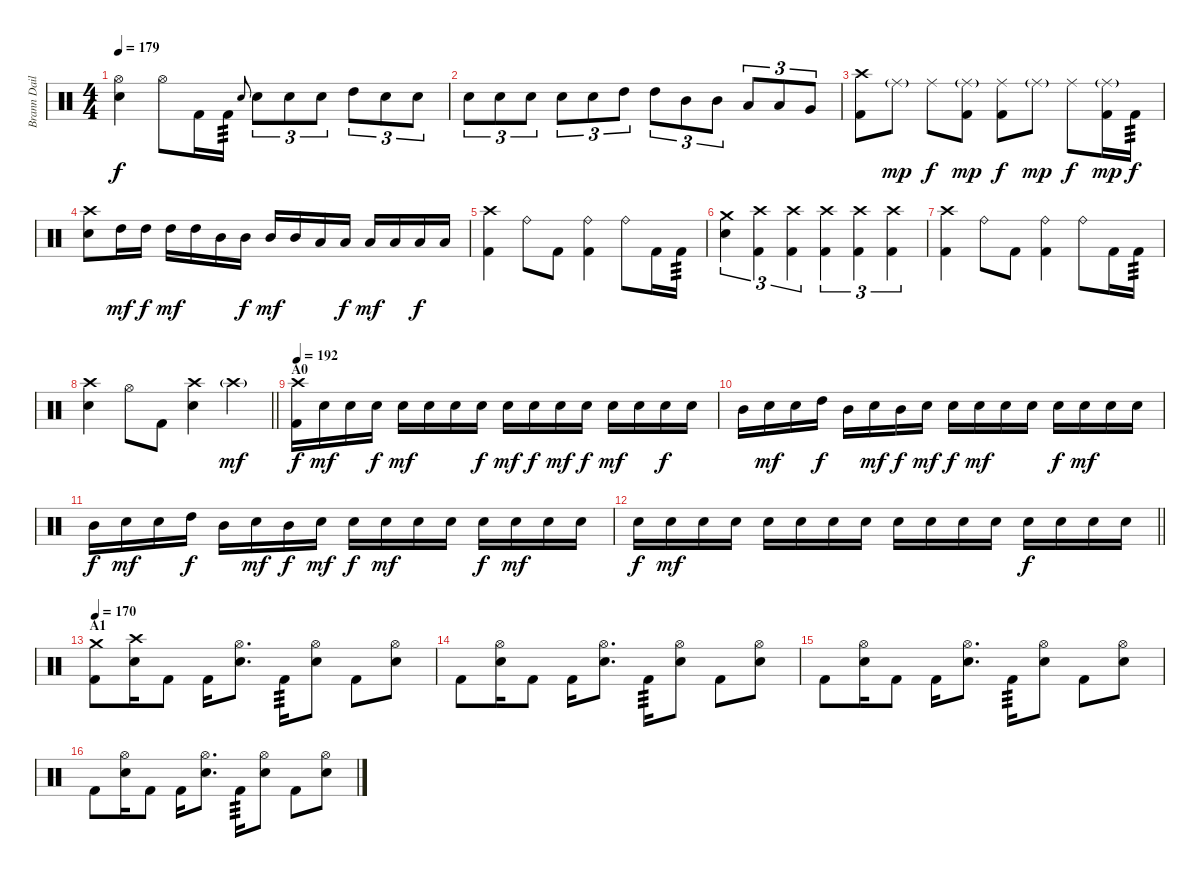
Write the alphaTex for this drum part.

\track ("Brann Dailor" "Brann Dail") {instrument percussion}
\staff {score}
\articulation defaults
\ts (4 4)
\tempo 179
\clef neutral
\ks c
("Hi-Hat (open)" "Snare (hit) 2").4{dy f} "Hi-Hat (open)".8 "Kick (hit) 2".16 "Kick (hit) 2".16{tp 3} "Snare (hit) 2".8{gr onbeat} "Snare (hit) 2".8{tu (3 2)} "Snare (hit) 2".8{tu (3 2)} "Snare (hit) 2".8{tu (3 2)} "High Tom (hit)".8{tu (3 2)} "Snare (hit) 2".8{tu (3 2)} "Snare (hit) 2".8{tu (3 2)} |
"Snare (hit) 2".8{tu (3 2)} "Snare (hit) 2".8{tu (3 2)} "Snare (hit) 2".8{tu (3 2)} "Snare (hit) 2".8{tu (3 2)} "Snare (hit) 2".8{tu (3 2)} "High Tom (hit)".8{tu (3 2)} "High Tom (hit)".8{tu (3 2)} "Mid Tom (hit)".8{tu (3 2)} "Mid Tom (hit)".8{tu (3 2)} "Low Tom (hit)".8{tu (3 2)} "Low Tom (hit)".8{tu (3 2)} "Very Low Tom (hit)".8{tu (3 2)} |
("Crash high (hit)" "Kick (hit) 2").8 "Ride (middle)"{g}.8{dy mp} "Ride (middle)".8{dy f} ("Ride (middle)"{g} "Kick (hit) 2").8{dy mp} ("Ride (middle)" "Kick (hit) 2").8{dy f} "Ride (middle)"{g}.8{dy mp} "Ride (middle)".8{dy f} ("Ride (middle)"{g} "Kick (hit) 2").16{dy mp} "Kick (hit) 2".16{tp 3 dy f} |
("Crash high (hit)" "Snare (hit) 2").8 "High Tom (hit)".16{dy mf} "High Tom (hit)".16{dy f} "High Tom (hit)".16{dy mf} "High Tom (hit)".16 "Mid Tom (hit)".16 "Mid Tom (hit)".16{dy f} "Mid Tom (hit)".16{dy mf} "Mid Tom (hit)".16 "Low Tom (hit)".16 "Low Tom (hit)".16{dy f} "Low Tom (hit)".16{dy mf} "Low Tom (hit)".16 "Low Tom (hit)".16{dy f} "Low Tom (hit)".16 |
("Crash high (hit)" "Kick (hit) 2").4 "Ride (bell)".8 "Kick (hit) 2".8 ("Ride (bell)" "Kick (hit) 2").4 "Ride (bell)".8 "Kick (hit) 2".16 "Kick (hit) 2".16{tp 3} |
("Crash medium (hit)" "Snare (hit) 2").4{tu (3 2)} ("Crash high (hit)" "Kick (hit) 2").4{tu (3 2)} ("Crash high (hit)" "Kick (hit) 2").4{tu (3 2)} ("Crash high (hit)" "Kick (hit) 2").4{tu (3 2)} ("Crash high (hit)" "Kick (hit) 2").4{tu (3 2)} ("Crash high (hit)" "Kick (hit) 2").4{tu (3 2)} |
("Crash high (hit)" "Kick (hit) 2").4 "Ride (bell)".8 "Kick (hit) 2".8 ("Ride (bell)" "Kick (hit) 2").4 "Ride (bell)".8 "Kick (hit) 2".16 "Kick (hit) 2".16{tp 3} |
\barLineRight lightlight
("Crash high (hit)" "Snare (hit) 2").4 "Hi-Hat (open)".8 "Kick (hit) 2".8 ("Crash high (hit)" "Snare (hit) 2").4 "Crash high (hit)"{g}.4{dy mf} |
\section ("" "A0")
\tempo 192
("Crash high (hit)" "Kick (hit) 2").16{dy f} "Snare (hit) 2".16{dy mf} "Snare (hit) 2".16 "Snare (hit) 2".16{dy f} "Snare (hit) 2".16{dy mf} "Snare (hit) 2".16 "Snare (hit) 2".16 "Snare (hit) 2".16{dy f} "Snare (hit) 2".16{dy mf} "Snare (hit) 2".16{dy f} "Snare (hit) 2".16{dy mf} "Snare (hit) 2".16{dy f} "Snare (hit) 2".16{dy mf} "Snare (hit) 2".16 "Snare (hit) 2".16{dy f} "Snare (hit) 2".16 |
"Mid Tom (hit)".16 "Snare (hit) 2".16{dy mf} "Snare (hit) 2".16 "High Tom (hit)".16{dy f} "Mid Tom (hit)".16 "Snare (hit) 2".16{dy mf} "Mid Tom (hit)".16{dy f} "Snare (hit) 2".16{dy mf} "Snare (hit) 2".16{dy f} "Snare (hit) 2".16{dy mf} "Snare (hit) 2".16 "Snare (hit) 2".16 "Snare (hit) 2".16{dy f} "Snare (hit) 2".16{dy mf} "Snare (hit) 2".16 "Snare (hit) 2".16 |
"Mid Tom (hit)".16{dy f} "Snare (hit) 2".16{dy mf} "Snare (hit) 2".16 "High Tom (hit)".16{dy f} "Mid Tom (hit)".16 "Snare (hit) 2".16{dy mf} "Mid Tom (hit)".16{dy f} "Snare (hit) 2".16{dy mf} "Snare (hit) 2".16{dy f} "Snare (hit) 2".16{dy mf} "Snare (hit) 2".16 "Snare (hit) 2".16 "Snare (hit) 2".16{dy f} "Snare (hit) 2".16{dy mf} "Snare (hit) 2".16 "Snare (hit) 2".16 |
\barLineRight lightlight "Snare (hit) 2".16{dy f} "Snare (hit) 2".16{dy mf} "Snare (hit) 2".16 "Snare (hit) 2".16 "Snare (hit) 2".16 "Snare (hit) 2".16 "Snare (hit) 2".16 "Snare (hit) 2".16 "Snare (hit) 2".16 "Snare (hit) 2".16 "Snare (hit) 2".16 "Snare (hit) 2".16 "Snare (hit) 2".16{dy f} "Snare (hit) 2".16 "Snare (hit) 2".16 "Snare (hit) 2".16
|
\section ("" "A1")
\tempo 170
("Crash medium (hit)" "Kick (hit) 2").8 ("Crash high (hit)" "Snare (hit) 2").16 "Kick (hit) 2".8 "Kick (hit) 2".16 ("Hi-Hat (open)" "Snare (hit) 2").8{d} "Kick (hit) 2".16{tp 3} ("Hi-Hat (open)" "Snare (hit) 2").8 "Kick (hit) 2".8 ("Hi-Hat (open)" "Snare (hit) 2").8 |
"Kick (hit) 2".8 ("Hi-Hat (open)" "Snare (hit) 2").16 "Kick (hit) 2".8 "Kick (hit) 2".16 ("Hi-Hat (open)" "Snare (hit) 2").8{d} "Kick (hit) 2".16{tp 3} ("Hi-Hat (open)" "Snare (hit) 2").8 "Kick (hit) 2".8 ("Hi-Hat (open)" "Snare (hit) 2").8 |
"Kick (hit) 2".8 ("Hi-Hat (open)" "Snare (hit) 2").16 "Kick (hit) 2".8 "Kick (hit) 2".16 ("Hi-Hat (open)" "Snare (hit) 2").8{d} "Kick (hit) 2".16{tp 3} ("Hi-Hat (open)" "Snare (hit) 2").8 "Kick (hit) 2".8 ("Hi-Hat (open)" "Snare (hit) 2").8 |
"Kick (hit) 2".8 ("Hi-Hat (open)" "Snare (hit) 2").16 "Kick (hit) 2".8 "Kick (hit) 2".16 ("Hi-Hat (open)" "Snare (hit) 2").8{d} "Kick (hit) 2".16{tp 3} ("Hi-Hat (open)" "Snare (hit) 2").8 "Kick (hit) 2".8 ("Hi-Hat (open)" "Snare (hit) 2").8
